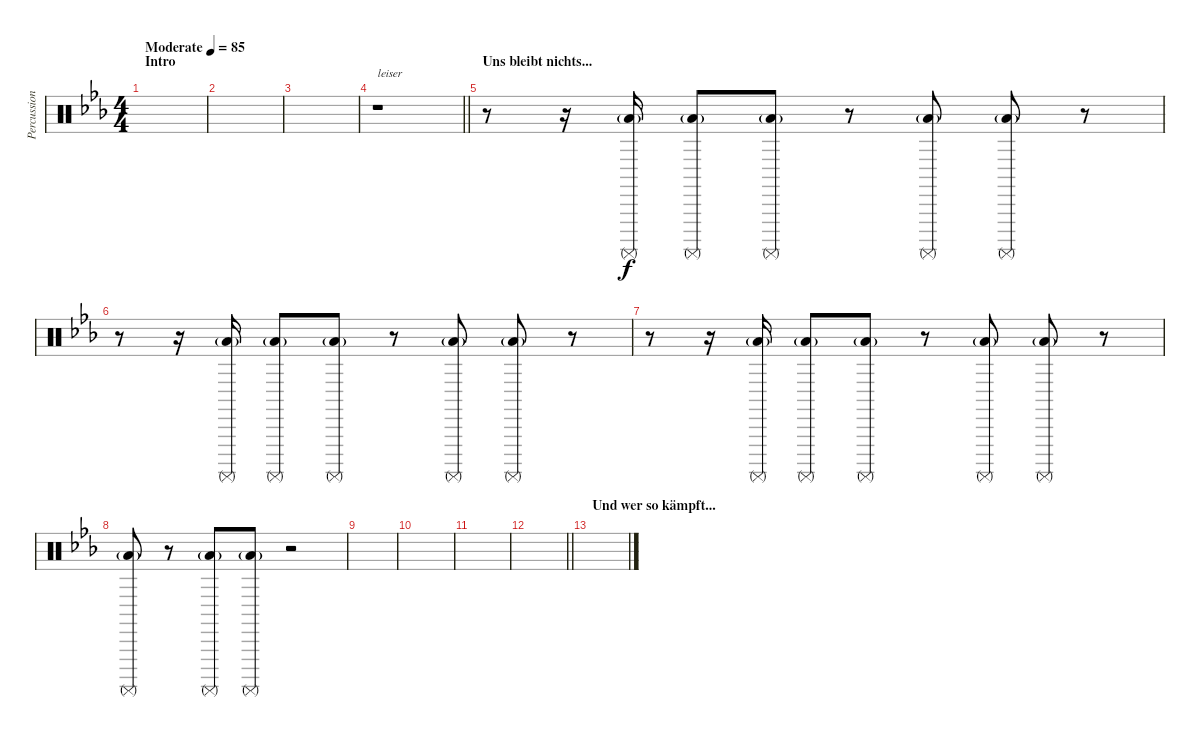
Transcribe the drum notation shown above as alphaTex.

\track ("Percussion" "Percussion") {instrument percussion}
\staff {score}
\articulation defaults
\ts (4 4)
\section ("" "Intro")
\tempo (85 "Moderate")
\clef neutral
\ks cminor
|
|
|
\barLineRight lightlight
r.1{txt "leiser" volume 5} |
\section ("" "Uns bleibt nichts...")
r.8 r.16 ("Surdo (mute)" "Low Floor Tom (hit)"{g}).16 ("Surdo (mute)" "Low Floor Tom (hit)"{g}).8 ("Surdo (mute)" "Low Floor Tom (hit)"{g}).8 r.8 ("Surdo (mute)" "Low Floor Tom (hit)"{g}).8 ("Surdo (mute)" "Low Floor Tom (hit)"{g}).8 r.8 |
r.8 r.16 ("Surdo (mute)" "Low Floor Tom (hit)"{g}).16 ("Surdo (mute)" "Low Floor Tom (hit)"{g}).8 ("Surdo (mute)" "Low Floor Tom (hit)"{g}).8 r.8 ("Surdo (mute)" "Low Floor Tom (hit)"{g}).8 ("Surdo (mute)" "Low Floor Tom (hit)"{g}).8 r.8 |
r.8 r.16 ("Surdo (mute)" "Low Floor Tom (hit)"{g}).16 ("Surdo (mute)" "Low Floor Tom (hit)"{g}).8 ("Surdo (mute)" "Low Floor Tom (hit)"{g}).8 r.8 ("Surdo (mute)" "Low Floor Tom (hit)"{g}).8 ("Surdo (mute)" "Low Floor Tom (hit)"{g}).8 r.8 |
("Surdo (mute)" "Low Floor Tom (hit)"{g}).8 r.8 ("Surdo (mute)" "Low Floor Tom (hit)"{g}).8 ("Surdo (mute)" "Low Floor Tom (hit)"{g}).8 r.2 |
|
|
|
\barLineRight lightlight
|
\section ("" "Und wer so kämpft...")
